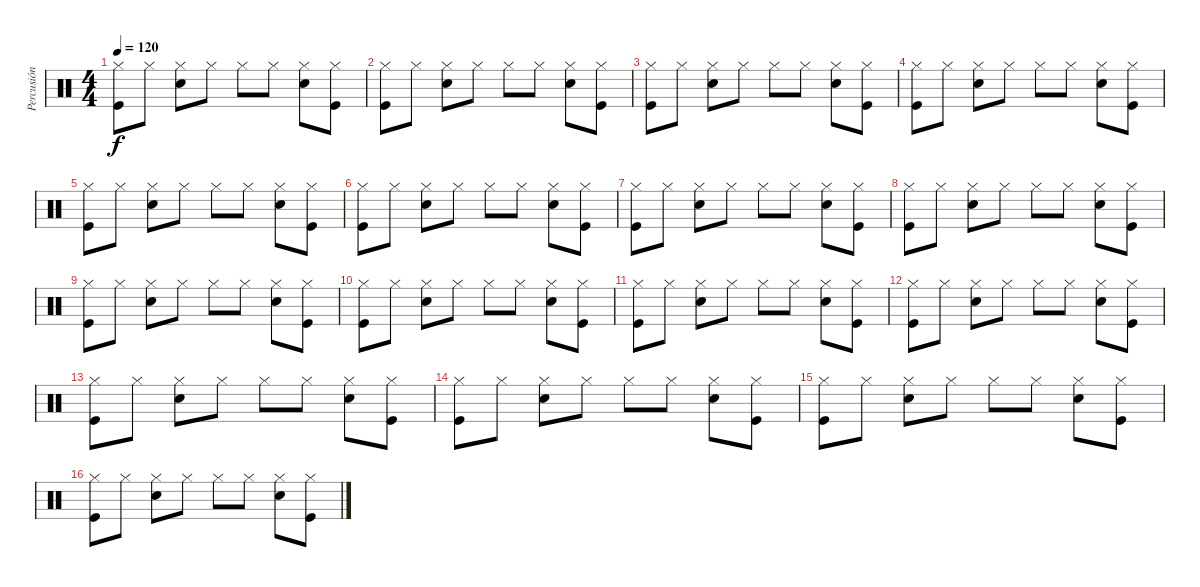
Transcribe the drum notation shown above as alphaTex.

\track ("Percusión" "Percusión") {instrument percussion}
\staff {score}
\articulation defaults
\ts (4 4)
\tempo 120
\clef neutral
\ks c
("Hi-Hat (closed)" "Kick (hit)").8{dy f} "Hi-Hat (closed)".8 ("Hi-Hat (closed)" "Snare (hit) 2").8 "Hi-Hat (closed)".8 "Hi-Hat (closed)".8 "Hi-Hat (closed)".8 ("Hi-Hat (closed)" "Snare (hit) 2").8 ("Hi-Hat (closed)" "Kick (hit)").8 |
("Hi-Hat (closed)" "Kick (hit)").8 "Hi-Hat (closed)".8 ("Hi-Hat (closed)" "Snare (hit) 2").8 "Hi-Hat (closed)".8 "Hi-Hat (closed)".8 "Hi-Hat (closed)".8 ("Hi-Hat (closed)" "Snare (hit) 2").8 ("Hi-Hat (closed)" "Kick (hit)").8 |
("Hi-Hat (closed)" "Kick (hit)").8 "Hi-Hat (closed)".8 ("Hi-Hat (closed)" "Snare (hit) 2").8 "Hi-Hat (closed)".8 "Hi-Hat (closed)".8 "Hi-Hat (closed)".8 ("Hi-Hat (closed)" "Snare (hit) 2").8 ("Hi-Hat (closed)" "Kick (hit)").8 |
("Hi-Hat (closed)" "Kick (hit)").8 "Hi-Hat (closed)".8 ("Hi-Hat (closed)" "Snare (hit) 2").8 "Hi-Hat (closed)".8 "Hi-Hat (closed)".8 "Hi-Hat (closed)".8 ("Hi-Hat (closed)" "Snare (hit) 2").8 ("Hi-Hat (closed)" "Kick (hit)").8 |
("Hi-Hat (closed)" "Kick (hit)").8 "Hi-Hat (closed)".8 ("Hi-Hat (closed)" "Snare (hit) 2").8 "Hi-Hat (closed)".8 "Hi-Hat (closed)".8 "Hi-Hat (closed)".8 ("Hi-Hat (closed)" "Snare (hit) 2").8 ("Hi-Hat (closed)" "Kick (hit)").8 |
("Hi-Hat (closed)" "Kick (hit)").8 "Hi-Hat (closed)".8 ("Hi-Hat (closed)" "Snare (hit) 2").8 "Hi-Hat (closed)".8 "Hi-Hat (closed)".8 "Hi-Hat (closed)".8 ("Hi-Hat (closed)" "Snare (hit) 2").8 ("Hi-Hat (closed)" "Kick (hit)").8 |
("Hi-Hat (closed)" "Kick (hit)").8 "Hi-Hat (closed)".8 ("Hi-Hat (closed)" "Snare (hit) 2").8 "Hi-Hat (closed)".8 "Hi-Hat (closed)".8 "Hi-Hat (closed)".8 ("Hi-Hat (closed)" "Snare (hit) 2").8 ("Hi-Hat (closed)" "Kick (hit)").8 |
("Hi-Hat (closed)" "Kick (hit)").8 "Hi-Hat (closed)".8 ("Hi-Hat (closed)" "Snare (hit) 2").8 "Hi-Hat (closed)".8 "Hi-Hat (closed)".8 "Hi-Hat (closed)".8 ("Hi-Hat (closed)" "Snare (hit) 2").8 ("Hi-Hat (closed)" "Kick (hit)").8 |
("Hi-Hat (closed)" "Kick (hit)").8 "Hi-Hat (closed)".8 ("Hi-Hat (closed)" "Snare (hit) 2").8 "Hi-Hat (closed)".8 "Hi-Hat (closed)".8 "Hi-Hat (closed)".8 ("Hi-Hat (closed)" "Snare (hit) 2").8 ("Hi-Hat (closed)" "Kick (hit)").8 |
("Hi-Hat (closed)" "Kick (hit)").8 "Hi-Hat (closed)".8 ("Hi-Hat (closed)" "Snare (hit) 2").8 "Hi-Hat (closed)".8 "Hi-Hat (closed)".8 "Hi-Hat (closed)".8 ("Hi-Hat (closed)" "Snare (hit) 2").8 ("Hi-Hat (closed)" "Kick (hit)").8 |
("Hi-Hat (closed)" "Kick (hit)").8 "Hi-Hat (closed)".8 ("Hi-Hat (closed)" "Snare (hit) 2").8 "Hi-Hat (closed)".8 "Hi-Hat (closed)".8 "Hi-Hat (closed)".8 ("Hi-Hat (closed)" "Snare (hit) 2").8 ("Hi-Hat (closed)" "Kick (hit)").8 |
("Hi-Hat (closed)" "Kick (hit)").8 "Hi-Hat (closed)".8 ("Hi-Hat (closed)" "Snare (hit) 2").8 "Hi-Hat (closed)".8 "Hi-Hat (closed)".8 "Hi-Hat (closed)".8 ("Hi-Hat (closed)" "Snare (hit) 2").8 ("Hi-Hat (closed)" "Kick (hit)").8 |
("Hi-Hat (closed)" "Kick (hit)").8 "Hi-Hat (closed)".8 ("Hi-Hat (closed)" "Snare (hit) 2").8 "Hi-Hat (closed)".8 "Hi-Hat (closed)".8 "Hi-Hat (closed)".8 ("Hi-Hat (closed)" "Snare (hit) 2").8 ("Hi-Hat (closed)" "Kick (hit)").8 |
("Hi-Hat (closed)" "Kick (hit)").8 "Hi-Hat (closed)".8 ("Hi-Hat (closed)" "Snare (hit) 2").8 "Hi-Hat (closed)".8 "Hi-Hat (closed)".8 "Hi-Hat (closed)".8 ("Hi-Hat (closed)" "Snare (hit) 2").8 ("Hi-Hat (closed)" "Kick (hit)").8 |
("Hi-Hat (closed)" "Kick (hit)").8 "Hi-Hat (closed)".8 ("Hi-Hat (closed)" "Snare (hit) 2").8 "Hi-Hat (closed)".8 "Hi-Hat (closed)".8 "Hi-Hat (closed)".8 ("Hi-Hat (closed)" "Snare (hit) 2").8 ("Hi-Hat (closed)" "Kick (hit)").8 |
("Hi-Hat (closed)" "Kick (hit)").8 "Hi-Hat (closed)".8 ("Hi-Hat (closed)" "Snare (hit) 2").8 "Hi-Hat (closed)".8 "Hi-Hat (closed)".8 "Hi-Hat (closed)".8 ("Hi-Hat (closed)" "Snare (hit) 2").8 ("Hi-Hat (closed)" "Kick (hit)").8
